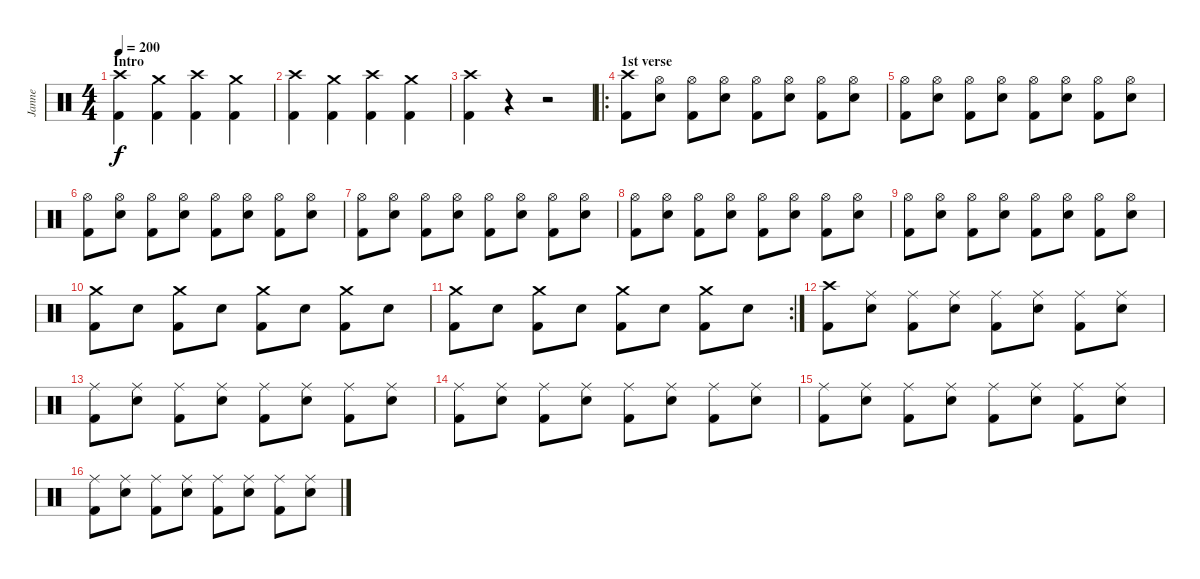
\track ("Janne" "Janne") {instrument percussion}
\staff {score}
\articulation defaults
\ts (4 4)
\section ("" "Intro")
\tempo 200
\clef neutral
\ks c
("Crash high (hit)" "Kick (hit) 2").4{dy f} ("Crash medium (hit)" "Kick (hit) 2").4 ("Crash high (hit)" "Kick (hit) 2").4 ("Crash medium (hit)" "Kick (hit) 2").4 |
("Crash high (hit)" "Kick (hit) 2").4 ("Crash medium (hit)" "Kick (hit) 2").4 ("Crash high (hit)" "Kick (hit) 2").4 ("Crash medium (hit)" "Kick (hit) 2").4 |
("Crash high (hit)" "Kick (hit) 2").4 r.4 r.2 |
\ro
\section ("" "1st verse")
("Crash high (hit)" "Kick (hit) 2").8 ("Hi-Hat (open)" "Electric Snare (hit)").8 ("Hi-Hat (open)" "Kick (hit) 2").8 ("Hi-Hat (open)" "Electric Snare (hit)").8 ("Hi-Hat (open)" "Kick (hit) 2").8 ("Hi-Hat (open)" "Electric Snare (hit)").8 ("Hi-Hat (open)" "Kick (hit) 2").8 ("Hi-Hat (open)" "Electric Snare (hit)").8 |
("Hi-Hat (open)" "Kick (hit) 2").8 ("Hi-Hat (open)" "Electric Snare (hit)").8 ("Hi-Hat (open)" "Kick (hit) 2").8 ("Hi-Hat (open)" "Electric Snare (hit)").8 ("Hi-Hat (open)" "Kick (hit) 2").8 ("Hi-Hat (open)" "Electric Snare (hit)").8 ("Hi-Hat (open)" "Kick (hit) 2").8 ("Hi-Hat (open)" "Electric Snare (hit)").8 |
("Hi-Hat (open)" "Kick (hit) 2").8 ("Hi-Hat (open)" "Electric Snare (hit)").8 ("Hi-Hat (open)" "Kick (hit) 2").8 ("Hi-Hat (open)" "Electric Snare (hit)").8 ("Hi-Hat (open)" "Kick (hit) 2").8 ("Hi-Hat (open)" "Electric Snare (hit)").8 ("Hi-Hat (open)" "Kick (hit) 2").8 ("Hi-Hat (open)" "Electric Snare (hit)").8 |
("Hi-Hat (open)" "Kick (hit) 2").8 ("Hi-Hat (open)" "Electric Snare (hit)").8 ("Hi-Hat (open)" "Kick (hit) 2").8 ("Hi-Hat (open)" "Electric Snare (hit)").8 ("Hi-Hat (open)" "Kick (hit) 2").8 ("Hi-Hat (open)" "Electric Snare (hit)").8 ("Hi-Hat (open)" "Kick (hit) 2").8 ("Hi-Hat (open)" "Electric Snare (hit)").8 |
("Hi-Hat (open)" "Kick (hit) 2").8 ("Hi-Hat (open)" "Electric Snare (hit)").8 ("Hi-Hat (open)" "Kick (hit) 2").8 ("Hi-Hat (open)" "Electric Snare (hit)").8 ("Hi-Hat (open)" "Kick (hit) 2").8 ("Hi-Hat (open)" "Electric Snare (hit)").8 ("Hi-Hat (open)" "Kick (hit) 2").8 ("Hi-Hat (open)" "Electric Snare (hit)").8 |
("Hi-Hat (open)" "Kick (hit) 2").8 ("Hi-Hat (open)" "Electric Snare (hit)").8 ("Hi-Hat (open)" "Kick (hit) 2").8 ("Hi-Hat (open)" "Electric Snare (hit)").8 ("Hi-Hat (open)" "Kick (hit) 2").8 ("Hi-Hat (open)" "Electric Snare (hit)").8 ("Hi-Hat (open)" "Kick (hit) 2").8 ("Hi-Hat (open)" "Electric Snare (hit)").8 |
("Crash medium (hit)" "Kick (hit) 2").8 "Electric Snare (hit)".8 ("Crash medium (hit)" "Kick (hit) 2").8 "Electric Snare (hit)".8 ("Crash medium (hit)" "Kick (hit) 2").8 "Electric Snare (hit)".8 ("Crash medium (hit)" "Kick (hit) 2").8 "Electric Snare (hit)".8 |
\rc 2
("Crash medium (hit)" "Kick (hit) 2").8 "Electric Snare (hit)".8 ("Crash medium (hit)" "Kick (hit) 2").8 "Electric Snare (hit)".8 ("Crash medium (hit)" "Kick (hit) 2").8 "Electric Snare (hit)".8 ("Crash medium (hit)" "Kick (hit) 2").8 "Electric Snare (hit)".8 |
("Crash high (hit)" "Kick (hit) 2").8 ("Ride (middle)" "Electric Snare (hit)").8 ("Ride (middle)" "Kick (hit) 2").8 ("Ride (middle)" "Electric Snare (hit)").8 ("Ride (middle)" "Kick (hit) 2").8 ("Ride (middle)" "Electric Snare (hit)").8 ("Ride (middle)" "Kick (hit) 2").8 ("Ride (middle)" "Electric Snare (hit)").8 |
("Ride (middle)" "Kick (hit) 2").8 ("Ride (middle)" "Electric Snare (hit)").8 ("Ride (middle)" "Kick (hit) 2").8 ("Ride (middle)" "Electric Snare (hit)").8 ("Ride (middle)" "Kick (hit) 2").8 ("Ride (middle)" "Electric Snare (hit)").8 ("Ride (middle)" "Kick (hit) 2").8 ("Ride (middle)" "Electric Snare (hit)").8 |
("Ride (middle)" "Kick (hit) 2").8 ("Ride (middle)" "Electric Snare (hit)").8 ("Ride (middle)" "Kick (hit) 2").8 ("Ride (middle)" "Electric Snare (hit)").8 ("Ride (middle)" "Kick (hit) 2").8 ("Ride (middle)" "Electric Snare (hit)").8 ("Ride (middle)" "Kick (hit) 2").8 ("Ride (middle)" "Electric Snare (hit)").8 |
("Ride (middle)" "Kick (hit) 2").8 ("Ride (middle)" "Electric Snare (hit)").8 ("Ride (middle)" "Kick (hit) 2").8 ("Ride (middle)" "Electric Snare (hit)").8 ("Ride (middle)" "Kick (hit) 2").8 ("Ride (middle)" "Electric Snare (hit)").8 ("Ride (middle)" "Kick (hit) 2").8 ("Ride (middle)" "Electric Snare (hit)").8 |
("Ride (middle)" "Kick (hit) 2").8 ("Ride (middle)" "Electric Snare (hit)").8 ("Ride (middle)" "Kick (hit) 2").8 ("Ride (middle)" "Electric Snare (hit)").8 ("Ride (middle)" "Kick (hit) 2").8 ("Ride (middle)" "Electric Snare (hit)").8 ("Ride (middle)" "Kick (hit) 2").8 ("Ride (middle)" "Electric Snare (hit)").8
